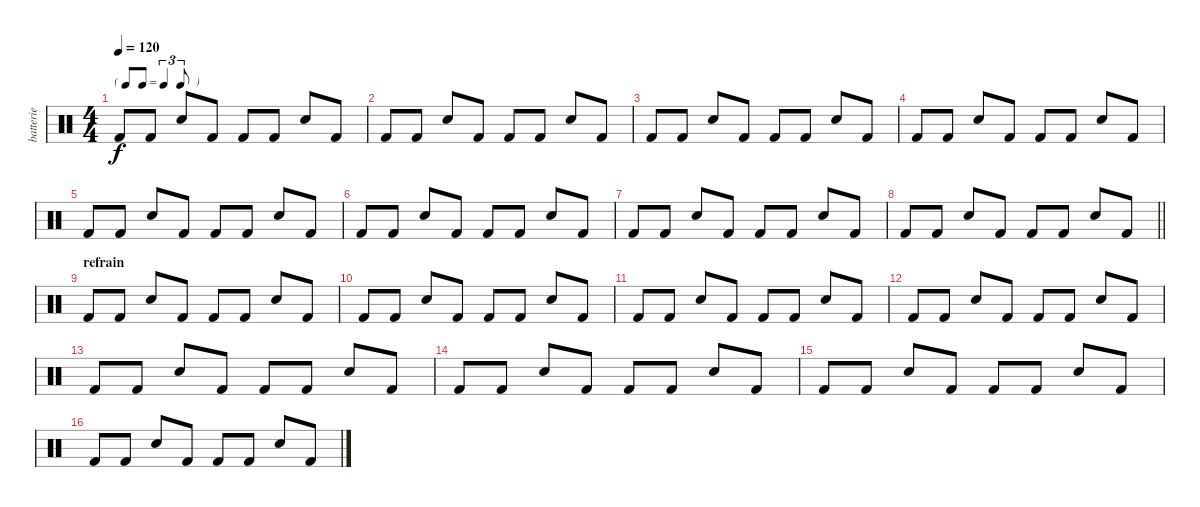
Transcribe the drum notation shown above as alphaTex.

\track ("batterie" "batterie") {instrument percussion}
\staff {score}
\articulation defaults
\ts (4 4)
\tf triplet8th
\tempo 120
\clef neutral
\ks c "Kick (hit) 2".8{dy f} "Kick (hit) 2".8 "Snare (hit) 2".8 "Kick (hit) 2".8 "Kick (hit) 2".8 "Kick (hit) 2".8 "Snare (hit) 2".8 "Kick (hit) 2".8
|
"Kick (hit) 2".8 "Kick (hit) 2".8 "Snare (hit) 2".8 "Kick (hit) 2".8 "Kick (hit) 2".8 "Kick (hit) 2".8 "Snare (hit) 2".8 "Kick (hit) 2".8 |
"Kick (hit) 2".8 "Kick (hit) 2".8 "Snare (hit) 2".8 "Kick (hit) 2".8 "Kick (hit) 2".8 "Kick (hit) 2".8 "Snare (hit) 2".8 "Kick (hit) 2".8 |
"Kick (hit) 2".8 "Kick (hit) 2".8 "Snare (hit) 2".8 "Kick (hit) 2".8 "Kick (hit) 2".8 "Kick (hit) 2".8 "Snare (hit) 2".8 "Kick (hit) 2".8 |
"Kick (hit) 2".8 "Kick (hit) 2".8 "Snare (hit) 2".8 "Kick (hit) 2".8 "Kick (hit) 2".8 "Kick (hit) 2".8 "Snare (hit) 2".8 "Kick (hit) 2".8 |
"Kick (hit) 2".8 "Kick (hit) 2".8 "Snare (hit) 2".8 "Kick (hit) 2".8 "Kick (hit) 2".8 "Kick (hit) 2".8 "Snare (hit) 2".8 "Kick (hit) 2".8 |
"Kick (hit) 2".8 "Kick (hit) 2".8 "Snare (hit) 2".8 "Kick (hit) 2".8 "Kick (hit) 2".8 "Kick (hit) 2".8 "Snare (hit) 2".8 "Kick (hit) 2".8 |
\barLineRight lightlight "Kick (hit) 2".8 "Kick (hit) 2".8 "Snare (hit) 2".8 "Kick (hit) 2".8 "Kick (hit) 2".8 "Kick (hit) 2".8 "Snare (hit) 2".8 "Kick (hit) 2".8
|
\section ("" "refrain")
"Kick (hit) 2".8 "Kick (hit) 2".8 "Snare (hit) 2".8 "Kick (hit) 2".8 "Kick (hit) 2".8 "Kick (hit) 2".8 "Snare (hit) 2".8 "Kick (hit) 2".8 |
"Kick (hit) 2".8 "Kick (hit) 2".8 "Snare (hit) 2".8 "Kick (hit) 2".8 "Kick (hit) 2".8 "Kick (hit) 2".8 "Snare (hit) 2".8 "Kick (hit) 2".8 |
"Kick (hit) 2".8 "Kick (hit) 2".8 "Snare (hit) 2".8 "Kick (hit) 2".8 "Kick (hit) 2".8 "Kick (hit) 2".8 "Snare (hit) 2".8 "Kick (hit) 2".8 |
"Kick (hit) 2".8 "Kick (hit) 2".8 "Snare (hit) 2".8 "Kick (hit) 2".8 "Kick (hit) 2".8 "Kick (hit) 2".8 "Snare (hit) 2".8 "Kick (hit) 2".8 |
"Kick (hit) 2".8 "Kick (hit) 2".8 "Snare (hit) 2".8 "Kick (hit) 2".8 "Kick (hit) 2".8 "Kick (hit) 2".8 "Snare (hit) 2".8 "Kick (hit) 2".8 |
"Kick (hit) 2".8 "Kick (hit) 2".8 "Snare (hit) 2".8 "Kick (hit) 2".8 "Kick (hit) 2".8 "Kick (hit) 2".8 "Snare (hit) 2".8 "Kick (hit) 2".8 |
"Kick (hit) 2".8 "Kick (hit) 2".8 "Snare (hit) 2".8 "Kick (hit) 2".8 "Kick (hit) 2".8 "Kick (hit) 2".8 "Snare (hit) 2".8 "Kick (hit) 2".8 |
"Kick (hit) 2".8 "Kick (hit) 2".8 "Snare (hit) 2".8 "Kick (hit) 2".8 "Kick (hit) 2".8 "Kick (hit) 2".8 "Snare (hit) 2".8 "Kick (hit) 2".8
